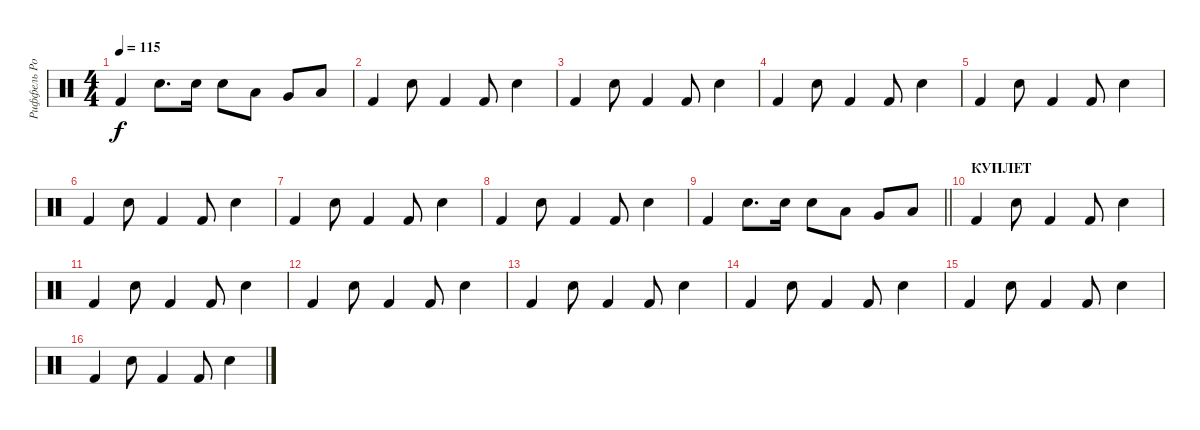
\track ("Риффель Роман(Главные)" "Риффель Ро") {instrument percussion}
\staff {score}
\articulation defaults
\ts (4 4)
\tempo 115
\clef neutral
\ks c "Kick (hit) 2".4{dy f} "Electric Snare (hit)".8{d} "Electric Snare (hit)".16 "Electric Snare (hit)".8 "Low Tom (hit)".8 "Very Low Tom (hit)".8 "Low Floor Tom (hit)".8
|
"Kick (hit) 2".4 "Electric Snare (hit)".8 "Kick (hit) 2".4 "Kick (hit) 2".8 "Electric Snare (hit)".4 |
"Kick (hit) 2".4 "Electric Snare (hit)".8 "Kick (hit) 2".4 "Kick (hit) 2".8 "Electric Snare (hit)".4 |
"Kick (hit) 2".4 "Electric Snare (hit)".8 "Kick (hit) 2".4 "Kick (hit) 2".8 "Electric Snare (hit)".4 |
"Kick (hit) 2".4 "Electric Snare (hit)".8 "Kick (hit) 2".4 "Kick (hit) 2".8 "Electric Snare (hit)".4 |
"Kick (hit) 2".4 "Electric Snare (hit)".8 "Kick (hit) 2".4 "Kick (hit) 2".8 "Electric Snare (hit)".4 |
"Kick (hit) 2".4 "Electric Snare (hit)".8 "Kick (hit) 2".4 "Kick (hit) 2".8 "Electric Snare (hit)".4 |
"Kick (hit) 2".4 "Electric Snare (hit)".8 "Kick (hit) 2".4 "Kick (hit) 2".8 "Electric Snare (hit)".4 |
\barLineRight lightlight "Kick (hit) 2".4 "Electric Snare (hit)".8{d} "Electric Snare (hit)".16 "Electric Snare (hit)".8 "Low Tom (hit)".8 "Very Low Tom (hit)".8 "Low Floor Tom (hit)".8
|
\section ("" "КУПЛЕТ")
"Kick (hit) 2".4 "Electric Snare (hit)".8 "Kick (hit) 2".4 "Kick (hit) 2".8 "Electric Snare (hit)".4 |
"Kick (hit) 2".4 "Electric Snare (hit)".8 "Kick (hit) 2".4 "Kick (hit) 2".8 "Electric Snare (hit)".4 |
"Kick (hit) 2".4 "Electric Snare (hit)".8 "Kick (hit) 2".4 "Kick (hit) 2".8 "Electric Snare (hit)".4 |
"Kick (hit) 2".4 "Electric Snare (hit)".8 "Kick (hit) 2".4 "Kick (hit) 2".8 "Electric Snare (hit)".4 |
"Kick (hit) 2".4 "Electric Snare (hit)".8 "Kick (hit) 2".4 "Kick (hit) 2".8 "Electric Snare (hit)".4 |
"Kick (hit) 2".4 "Electric Snare (hit)".8 "Kick (hit) 2".4 "Kick (hit) 2".8 "Electric Snare (hit)".4 |
"Kick (hit) 2".4 "Electric Snare (hit)".8 "Kick (hit) 2".4 "Kick (hit) 2".8 "Electric Snare (hit)".4
